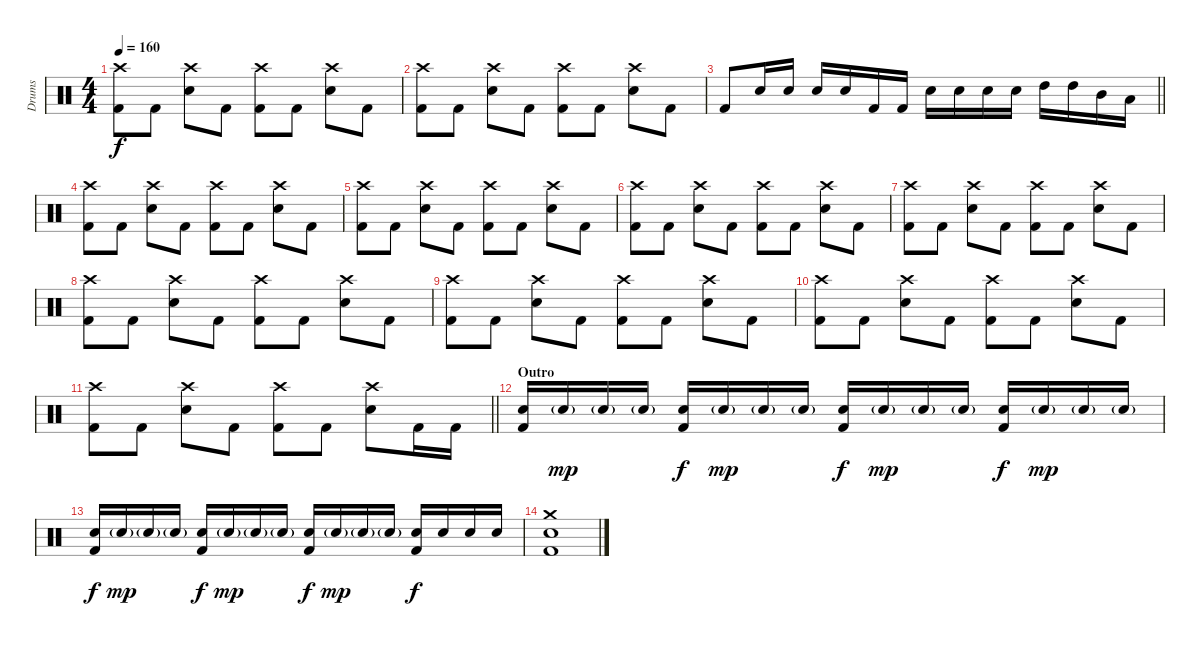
\track ("Drums" "Drums") {instrument percussion}
\staff {score}
\articulation defaults
\ts (4 4)
\tempo 160
\clef neutral
\ks c
("Crash high (hit)" "Kick (hit) 2").8{dy f} "Kick (hit) 2".8 ("Crash high (hit)" "Electric Snare (hit)").8 "Kick (hit) 2".8 ("Crash high (hit)" "Kick (hit) 2").8 "Kick (hit) 2".8 ("Crash high (hit)" "Electric Snare (hit)").8 "Kick (hit) 2".8 |
("Crash high (hit)" "Kick (hit) 2").8 "Kick (hit) 2".8 ("Crash high (hit)" "Electric Snare (hit)").8 "Kick (hit) 2".8 ("Crash high (hit)" "Kick (hit) 2").8 "Kick (hit) 2".8 ("Crash high (hit)" "Electric Snare (hit)").8 "Kick (hit) 2".8 |
\barLineRight lightlight "Kick (hit) 2".8 "Electric Snare (hit)".16 "Electric Snare (hit)".16 "Electric Snare (hit)".16 "Electric Snare (hit)".16 "Kick (hit) 2".16 "Kick (hit) 2".16 "Electric Snare (hit)".16 "Electric Snare (hit)".16 "Electric Snare (hit)".16 "Electric Snare (hit)".16 "High Tom (hit)".16 "High Tom (hit)".16 "Mid Tom (hit)".16 "Low Tom (hit)".16
|
("Crash high (hit)" "Kick (hit) 2").8 "Kick (hit) 2".8 ("Crash high (hit)" "Electric Snare (hit)").8 "Kick (hit) 2".8 ("Crash high (hit)" "Kick (hit) 2").8 "Kick (hit) 2".8 ("Crash high (hit)" "Electric Snare (hit)").8 "Kick (hit) 2".8 |
("Crash high (hit)" "Kick (hit) 2").8 "Kick (hit) 2".8 ("Crash high (hit)" "Electric Snare (hit)").8 "Kick (hit) 2".8 ("Crash high (hit)" "Kick (hit) 2").8 "Kick (hit) 2".8 ("Crash high (hit)" "Electric Snare (hit)").8 "Kick (hit) 2".8 |
("Crash high (hit)" "Kick (hit) 2").8 "Kick (hit) 2".8 ("Crash high (hit)" "Electric Snare (hit)").8 "Kick (hit) 2".8 ("Crash high (hit)" "Kick (hit) 2").8 "Kick (hit) 2".8 ("Crash high (hit)" "Electric Snare (hit)").8 "Kick (hit) 2".8 |
("Crash high (hit)" "Kick (hit) 2").8 "Kick (hit) 2".8 ("Crash high (hit)" "Electric Snare (hit)").8 "Kick (hit) 2".8 ("Crash high (hit)" "Kick (hit) 2").8 "Kick (hit) 2".8 ("Crash high (hit)" "Electric Snare (hit)").8 "Kick (hit) 2".8 |
("Crash high (hit)" "Kick (hit) 2").8 "Kick (hit) 2".8 ("Crash high (hit)" "Electric Snare (hit)").8 "Kick (hit) 2".8 ("Crash high (hit)" "Kick (hit) 2").8 "Kick (hit) 2".8 ("Crash high (hit)" "Electric Snare (hit)").8 "Kick (hit) 2".8 |
("Crash high (hit)" "Kick (hit) 2").8 "Kick (hit) 2".8 ("Crash high (hit)" "Electric Snare (hit)").8 "Kick (hit) 2".8 ("Crash high (hit)" "Kick (hit) 2").8 "Kick (hit) 2".8 ("Crash high (hit)" "Electric Snare (hit)").8 "Kick (hit) 2".8 |
("Crash high (hit)" "Kick (hit) 2").8 "Kick (hit) 2".8 ("Crash high (hit)" "Electric Snare (hit)").8 "Kick (hit) 2".8 ("Crash high (hit)" "Kick (hit) 2").8 "Kick (hit) 2".8 ("Crash high (hit)" "Electric Snare (hit)").8 "Kick (hit) 2".8 |
\barLineRight lightlight
("Crash high (hit)" "Kick (hit) 2").8 "Kick (hit) 2".8 ("Crash high (hit)" "Electric Snare (hit)").8 "Kick (hit) 2".8 ("Crash high (hit)" "Kick (hit) 2").8 "Kick (hit) 2".8 ("Crash high (hit)" "Electric Snare (hit)").8 "Kick (hit) 2".16 "Kick (hit) 2".16 |
\section ("" "Outro")
("Electric Snare (hit)" "Kick (hit) 2").16 "Electric Snare (hit)"{g}.16{dy mp} "Electric Snare (hit)"{g}.16 "Electric Snare (hit)"{g}.16 ("Electric Snare (hit)" "Kick (hit) 2").16{dy f} "Electric Snare (hit)"{g}.16{dy mp} "Electric Snare (hit)"{g}.16 "Electric Snare (hit)"{g}.16 ("Electric Snare (hit)" "Kick (hit) 2").16{dy f} "Electric Snare (hit)"{g}.16{dy mp} "Electric Snare (hit)"{g}.16 "Electric Snare (hit)"{g}.16 ("Electric Snare (hit)" "Kick (hit) 2").16{dy f} "Electric Snare (hit)"{g}.16{dy mp} "Electric Snare (hit)"{g}.16 "Electric Snare (hit)"{g}.16 |
("Electric Snare (hit)" "Kick (hit) 2").16{dy f} "Electric Snare (hit)"{g}.16{dy mp} "Electric Snare (hit)"{g}.16 "Electric Snare (hit)"{g}.16 ("Electric Snare (hit)" "Kick (hit) 2").16{dy f} "Electric Snare (hit)"{g}.16{dy mp} "Electric Snare (hit)"{g}.16 "Electric Snare (hit)"{g}.16 ("Electric Snare (hit)" "Kick (hit) 2").16{dy f} "Electric Snare (hit)"{g}.16{dy mp} "Electric Snare (hit)"{g}.16 "Electric Snare (hit)"{g}.16 ("Electric Snare (hit)" "Kick (hit) 2").16{dy f} "Electric Snare (hit)".16 "Electric Snare (hit)".16 "Electric Snare (hit)".16 |
("Crash medium (hit)" "Electric Snare (hit)" "Kick (hit) 2").1
